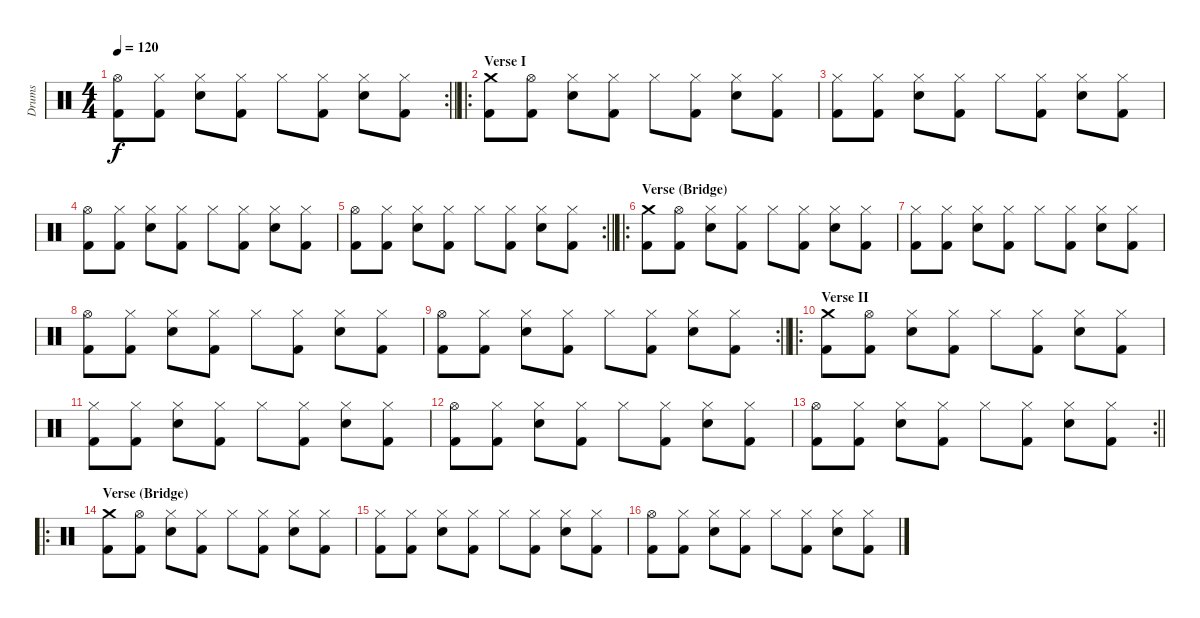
\track ("Drums" "Drums") {instrument percussion}
\staff {score}
\articulation defaults
\rc 2
\ts (4 4)
\tempo 120
\clef neutral
\barLineRight lightlight
\ks c
("Kick (hit) 2" "Hi-Hat (open)").8{dy f} ("Kick (hit) 2" "Hi-Hat (closed)").8 ("Snare (hit) 2" "Hi-Hat (closed)").8 ("Kick (hit) 2" "Hi-Hat (closed)").8 "Hi-Hat (closed)".8 ("Kick (hit) 2" "Hi-Hat (closed)").8 ("Snare (hit) 2" "Hi-Hat (closed)").8 ("Kick (hit) 2" "Hi-Hat (closed)").8 |
\ro
\section ("" "Verse I")
("Kick (hit) 2" "Crash medium (hit)").8 ("Kick (hit) 2" "Hi-Hat (open)").8 ("Snare (hit) 2" "Hi-Hat (closed)").8 ("Kick (hit) 2" "Hi-Hat (closed)").8 "Hi-Hat (closed)".8 ("Kick (hit) 2" "Hi-Hat (closed)").8 ("Snare (hit) 2" "Hi-Hat (closed)").8 ("Kick (hit) 2" "Hi-Hat (closed)").8 |
("Kick (hit) 2" "Hi-Hat (closed)").8 ("Kick (hit) 2" "Hi-Hat (closed)").8 ("Snare (hit) 2" "Hi-Hat (closed)").8 ("Kick (hit) 2" "Hi-Hat (closed)").8 "Hi-Hat (closed)".8 ("Kick (hit) 2" "Hi-Hat (closed)").8 ("Snare (hit) 2" "Hi-Hat (closed)").8 ("Kick (hit) 2" "Hi-Hat (closed)").8 |
("Kick (hit) 2" "Hi-Hat (open)").8 ("Kick (hit) 2" "Hi-Hat (closed)").8 ("Snare (hit) 2" "Hi-Hat (closed)").8 ("Kick (hit) 2" "Hi-Hat (closed)").8 "Hi-Hat (closed)".8 ("Kick (hit) 2" "Hi-Hat (closed)").8 ("Snare (hit) 2" "Hi-Hat (closed)").8 ("Kick (hit) 2" "Hi-Hat (closed)").8 |
\rc 2
\barLineRight lightlight
("Kick (hit) 2" "Hi-Hat (open)").8 ("Kick (hit) 2" "Hi-Hat (closed)").8 ("Snare (hit) 2" "Hi-Hat (closed)").8 ("Kick (hit) 2" "Hi-Hat (closed)").8 "Hi-Hat (closed)".8 ("Kick (hit) 2" "Hi-Hat (closed)").8 ("Snare (hit) 2" "Hi-Hat (closed)").8 ("Kick (hit) 2" "Hi-Hat (closed)").8 |
\ro
\section ("" "Verse (Bridge)")
("Kick (hit) 2" "Crash medium (hit)").8 ("Kick (hit) 2" "Hi-Hat (open)").8 ("Snare (hit) 2" "Hi-Hat (closed)").8 ("Kick (hit) 2" "Hi-Hat (closed)").8 "Hi-Hat (closed)".8 ("Kick (hit) 2" "Hi-Hat (closed)").8 ("Snare (hit) 2" "Hi-Hat (closed)").8 ("Kick (hit) 2" "Hi-Hat (closed)").8 |
("Kick (hit) 2" "Hi-Hat (closed)").8 ("Kick (hit) 2" "Hi-Hat (closed)").8 ("Snare (hit) 2" "Hi-Hat (closed)").8 ("Kick (hit) 2" "Hi-Hat (closed)").8 "Hi-Hat (closed)".8 ("Kick (hit) 2" "Hi-Hat (closed)").8 ("Snare (hit) 2" "Hi-Hat (closed)").8 ("Kick (hit) 2" "Hi-Hat (closed)").8 |
("Kick (hit) 2" "Hi-Hat (open)").8 ("Kick (hit) 2" "Hi-Hat (closed)").8 ("Snare (hit) 2" "Hi-Hat (closed)").8 ("Kick (hit) 2" "Hi-Hat (closed)").8 "Hi-Hat (closed)".8 ("Kick (hit) 2" "Hi-Hat (closed)").8 ("Snare (hit) 2" "Hi-Hat (closed)").8 ("Kick (hit) 2" "Hi-Hat (closed)").8 |
\rc 2
\barLineRight lightlight
("Kick (hit) 2" "Hi-Hat (open)").8 ("Kick (hit) 2" "Hi-Hat (closed)").8 ("Snare (hit) 2" "Hi-Hat (closed)").8 ("Kick (hit) 2" "Hi-Hat (closed)").8 "Hi-Hat (closed)".8 ("Kick (hit) 2" "Hi-Hat (closed)").8 ("Snare (hit) 2" "Hi-Hat (closed)").8 ("Kick (hit) 2" "Hi-Hat (closed)").8 |
\ro
\section ("" "Verse II")
("Kick (hit) 2" "Crash medium (hit)").8 ("Kick (hit) 2" "Hi-Hat (open)").8 ("Snare (hit) 2" "Hi-Hat (closed)").8 ("Kick (hit) 2" "Hi-Hat (closed)").8 "Hi-Hat (closed)".8 ("Kick (hit) 2" "Hi-Hat (closed)").8 ("Snare (hit) 2" "Hi-Hat (closed)").8 ("Kick (hit) 2" "Hi-Hat (closed)").8 |
("Kick (hit) 2" "Hi-Hat (closed)").8 ("Kick (hit) 2" "Hi-Hat (closed)").8 ("Snare (hit) 2" "Hi-Hat (closed)").8 ("Kick (hit) 2" "Hi-Hat (closed)").8 "Hi-Hat (closed)".8 ("Kick (hit) 2" "Hi-Hat (closed)").8 ("Snare (hit) 2" "Hi-Hat (closed)").8 ("Kick (hit) 2" "Hi-Hat (closed)").8 |
("Kick (hit) 2" "Hi-Hat (open)").8 ("Kick (hit) 2" "Hi-Hat (closed)").8 ("Snare (hit) 2" "Hi-Hat (closed)").8 ("Kick (hit) 2" "Hi-Hat (closed)").8 "Hi-Hat (closed)".8 ("Kick (hit) 2" "Hi-Hat (closed)").8 ("Snare (hit) 2" "Hi-Hat (closed)").8 ("Kick (hit) 2" "Hi-Hat (closed)").8 |
\rc 2
\barLineRight lightlight
("Kick (hit) 2" "Hi-Hat (open)").8 ("Kick (hit) 2" "Hi-Hat (closed)").8 ("Snare (hit) 2" "Hi-Hat (closed)").8 ("Kick (hit) 2" "Hi-Hat (closed)").8 "Hi-Hat (closed)".8 ("Kick (hit) 2" "Hi-Hat (closed)").8 ("Snare (hit) 2" "Hi-Hat (closed)").8 ("Kick (hit) 2" "Hi-Hat (closed)").8 |
\ro
\section ("" "Verse (Bridge)")
("Kick (hit) 2" "Crash medium (hit)").8 ("Kick (hit) 2" "Hi-Hat (open)").8 ("Snare (hit) 2" "Hi-Hat (closed)").8 ("Kick (hit) 2" "Hi-Hat (closed)").8 "Hi-Hat (closed)".8 ("Kick (hit) 2" "Hi-Hat (closed)").8 ("Snare (hit) 2" "Hi-Hat (closed)").8 ("Kick (hit) 2" "Hi-Hat (closed)").8 |
("Kick (hit) 2" "Hi-Hat (closed)").8 ("Kick (hit) 2" "Hi-Hat (closed)").8 ("Snare (hit) 2" "Hi-Hat (closed)").8 ("Kick (hit) 2" "Hi-Hat (closed)").8 "Hi-Hat (closed)".8 ("Kick (hit) 2" "Hi-Hat (closed)").8 ("Snare (hit) 2" "Hi-Hat (closed)").8 ("Kick (hit) 2" "Hi-Hat (closed)").8 |
("Kick (hit) 2" "Hi-Hat (open)").8 ("Kick (hit) 2" "Hi-Hat (closed)").8 ("Snare (hit) 2" "Hi-Hat (closed)").8 ("Kick (hit) 2" "Hi-Hat (closed)").8 "Hi-Hat (closed)".8 ("Kick (hit) 2" "Hi-Hat (closed)").8 ("Snare (hit) 2" "Hi-Hat (closed)").8 ("Kick (hit) 2" "Hi-Hat (closed)").8
